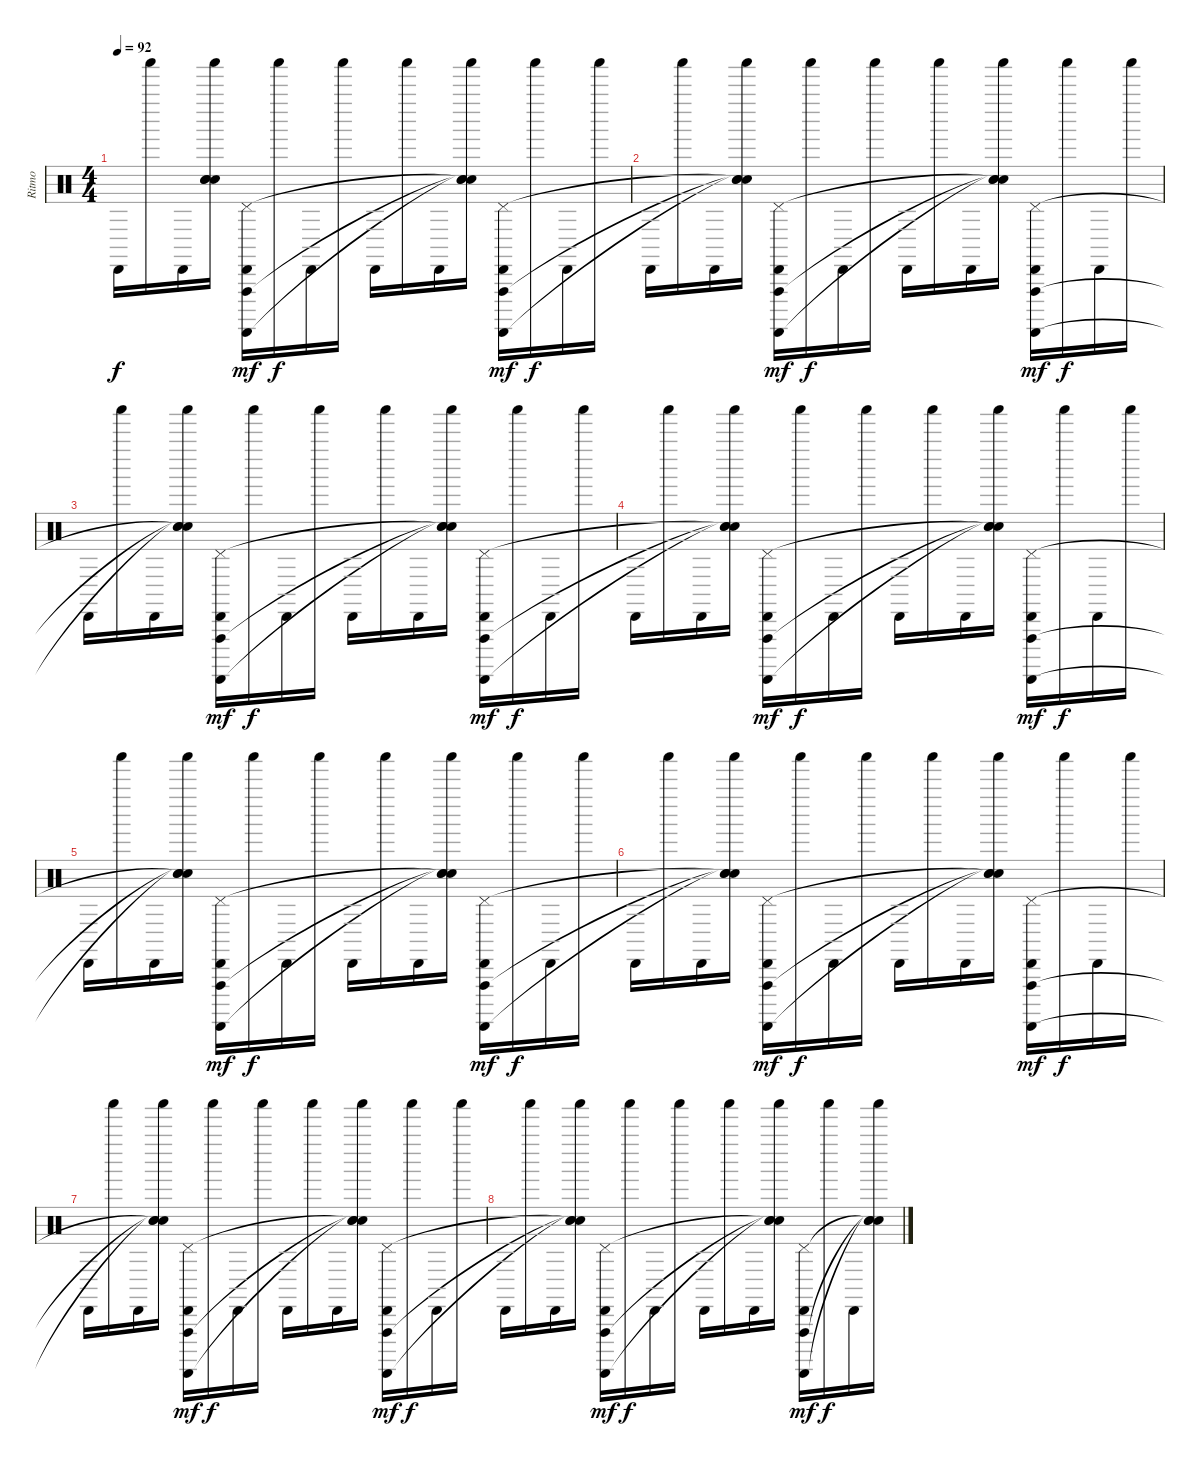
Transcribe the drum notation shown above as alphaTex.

\track ("Ritmo" "Ritmo") {instrument percussion}
\staff {score}
\articulation defaults
\ts (4 4)
\tempo 92
\clef neutral
\ks c "Cabasa (hit)".16{dy f} "Shaker (hit)".16 "Cabasa (hit)".16
("Shaker (hit)" "Snare (hit)"{t} "Snare (hit)"{t} "Snare (hit)"{t}).16 ("Cabasa (hit)" "Vibraslap (hit)" "Guiro (scrap-return)" "Pedal Hi-Hat (hit)").16{dy mf} "Shaker (hit)".16{dy f} "Cabasa (hit)".16 "Shaker (hit)".16 "Cabasa (hit)".16 "Shaker (hit)".16 "Cabasa (hit)".16 ("Shaker (hit)" "Snare (hit)"{t} "Snare (hit)"{t} "Snare (hit)"{t}).16 ("Cabasa (hit)" "Vibraslap (hit)" "Guiro (scrap-return)" "Pedal Hi-Hat (hit)").16{dy mf} "Shaker (hit)".16{dy f} "Cabasa (hit)".16 "Shaker (hit)".16 |
"Cabasa (hit)".16 "Shaker (hit)".16 "Cabasa (hit)".16 ("Shaker (hit)" "Snare (hit)"{t} "Snare (hit)"{t} "Snare (hit)"{t}).16 ("Cabasa (hit)" "Vibraslap (hit)" "Guiro (scrap-return)" "Pedal Hi-Hat (hit)").16{dy mf} "Shaker (hit)".16{dy f} "Cabasa (hit)".16 "Shaker (hit)".16 "Cabasa (hit)".16 "Shaker (hit)".16 "Cabasa (hit)".16 ("Shaker (hit)" "Snare (hit)"{t} "Snare (hit)"{t} "Snare (hit)"{t}).16 ("Cabasa (hit)" "Vibraslap (hit)" "Guiro (scrap-return)" "Pedal Hi-Hat (hit)").16{dy mf} "Shaker (hit)".16{dy f} "Cabasa (hit)".16 "Shaker (hit)".16 |
"Cabasa (hit)".16 "Shaker (hit)".16 "Cabasa (hit)".16 ("Shaker (hit)" "Snare (hit)"{t} "Snare (hit)"{t} "Snare (hit)"{t}).16 ("Cabasa (hit)" "Vibraslap (hit)" "Guiro (scrap-return)" "Pedal Hi-Hat (hit)").16{dy mf} "Shaker (hit)".16{dy f} "Cabasa (hit)".16 "Shaker (hit)".16 "Cabasa (hit)".16 "Shaker (hit)".16 "Cabasa (hit)".16 ("Shaker (hit)" "Snare (hit)"{t} "Snare (hit)"{t} "Snare (hit)"{t}).16 ("Cabasa (hit)" "Vibraslap (hit)" "Guiro (scrap-return)" "Pedal Hi-Hat (hit)").16{dy mf} "Shaker (hit)".16{dy f} "Cabasa (hit)".16 "Shaker (hit)".16 |
"Cabasa (hit)".16 "Shaker (hit)".16 "Cabasa (hit)".16 ("Shaker (hit)" "Snare (hit)"{t} "Snare (hit)"{t} "Snare (hit)"{t}).16 ("Cabasa (hit)" "Vibraslap (hit)" "Guiro (scrap-return)" "Pedal Hi-Hat (hit)").16{dy mf} "Shaker (hit)".16{dy f} "Cabasa (hit)".16 "Shaker (hit)".16 "Cabasa (hit)".16 "Shaker (hit)".16 "Cabasa (hit)".16 ("Shaker (hit)" "Snare (hit)"{t} "Snare (hit)"{t} "Snare (hit)"{t}).16 ("Cabasa (hit)" "Vibraslap (hit)" "Guiro (scrap-return)" "Pedal Hi-Hat (hit)").16{dy mf} "Shaker (hit)".16{dy f} "Cabasa (hit)".16 "Shaker (hit)".16 |
"Cabasa (hit)".16 "Shaker (hit)".16 "Cabasa (hit)".16 ("Shaker (hit)" "Snare (hit)"{t} "Snare (hit)"{t} "Snare (hit)"{t}).16 ("Cabasa (hit)" "Vibraslap (hit)" "Guiro (scrap-return)" "Pedal Hi-Hat (hit)").16{dy mf} "Shaker (hit)".16{dy f} "Cabasa (hit)".16 "Shaker (hit)".16 "Cabasa (hit)".16 "Shaker (hit)".16 "Cabasa (hit)".16 ("Shaker (hit)" "Snare (hit)"{t} "Snare (hit)"{t} "Snare (hit)"{t}).16 ("Cabasa (hit)" "Vibraslap (hit)" "Guiro (scrap-return)" "Pedal Hi-Hat (hit)").16{dy mf} "Shaker (hit)".16{dy f} "Cabasa (hit)".16 "Shaker (hit)".16 |
"Cabasa (hit)".16 "Shaker (hit)".16 "Cabasa (hit)".16 ("Shaker (hit)" "Snare (hit)"{t} "Snare (hit)"{t} "Snare (hit)"{t}).16 ("Cabasa (hit)" "Vibraslap (hit)" "Guiro (scrap-return)" "Pedal Hi-Hat (hit)").16{dy mf} "Shaker (hit)".16{dy f} "Cabasa (hit)".16 "Shaker (hit)".16 "Cabasa (hit)".16 "Shaker (hit)".16 "Cabasa (hit)".16 ("Shaker (hit)" "Snare (hit)"{t} "Snare (hit)"{t} "Snare (hit)"{t}).16 ("Cabasa (hit)" "Vibraslap (hit)" "Guiro (scrap-return)" "Pedal Hi-Hat (hit)").16{dy mf} "Shaker (hit)".16{dy f} "Cabasa (hit)".16 "Shaker (hit)".16 |
"Cabasa (hit)".16 "Shaker (hit)".16 "Cabasa (hit)".16 ("Shaker (hit)" "Snare (hit)"{t} "Snare (hit)"{t} "Snare (hit)"{t}).16 ("Cabasa (hit)" "Vibraslap (hit)" "Guiro (scrap-return)" "Pedal Hi-Hat (hit)").16{dy mf} "Shaker (hit)".16{dy f} "Cabasa (hit)".16 "Shaker (hit)".16 "Cabasa (hit)".16 "Shaker (hit)".16 "Cabasa (hit)".16 ("Shaker (hit)" "Snare (hit)"{t} "Snare (hit)"{t} "Snare (hit)"{t}).16 ("Cabasa (hit)" "Vibraslap (hit)" "Guiro (scrap-return)" "Pedal Hi-Hat (hit)").16{dy mf} "Shaker (hit)".16{dy f} "Cabasa (hit)".16 "Shaker (hit)".16 |
"Cabasa (hit)".16 "Shaker (hit)".16 "Cabasa (hit)".16 ("Shaker (hit)" "Snare (hit)"{t} "Snare (hit)"{t} "Snare (hit)"{t}).16 ("Cabasa (hit)" "Vibraslap (hit)" "Guiro (scrap-return)" "Pedal Hi-Hat (hit)").16{dy mf} "Shaker (hit)".16{dy f} "Cabasa (hit)".16 "Shaker (hit)".16 "Cabasa (hit)".16 "Shaker (hit)".16 "Cabasa (hit)".16 ("Shaker (hit)" "Snare (hit)"{t} "Snare (hit)"{t} "Snare (hit)"{t}).16 ("Cabasa (hit)" "Vibraslap (hit)" "Guiro (scrap-return)" "Pedal Hi-Hat (hit)").16{dy mf} "Shaker (hit)".16{dy f} "Cabasa (hit)".16 ("Shaker (hit)" "Snare (hit)"{t} "Snare (hit)"{t} "Snare (hit)"{t}).16
